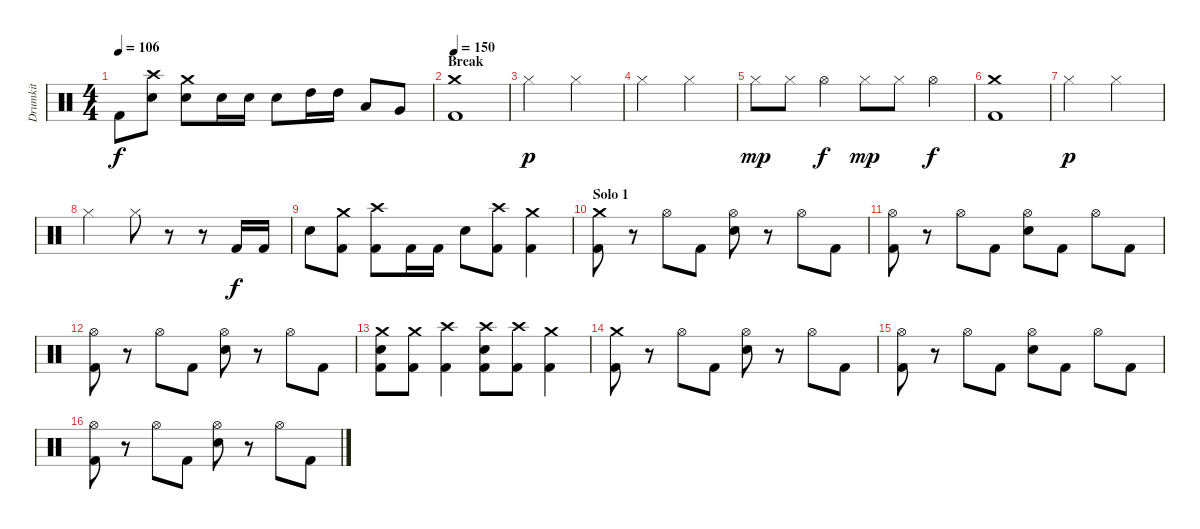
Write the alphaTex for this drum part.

\track ("Drumkit" "Drumkit") {instrument percussion}
\staff {score}
\articulation defaults
\ts (4 4)
\tempo 106
\clef neutral
\ks c "Kick (hit) 2".8{dy f}
("Crash high (hit)" "Snare (hit) 2").8 ("Crash medium (hit)" "Snare (hit) 2").8 "Snare (hit) 2".16 "Snare (hit) 2".16 "Snare (hit) 2".8 "High Tom (hit)".16 "High Tom (hit)".16 "Low Tom (hit)".8 "Very Low Tom (hit)".8 |
\section ("" "Break")
\tempo 150
("Crash medium (hit)" "Kick (hit) 2").1 |
"Hi-Hat (closed)".2{dy p} "Hi-Hat (closed)".2 |
"Hi-Hat (closed)".2 "Hi-Hat (closed)".2 |
"Hi-Hat (closed)".8{dy mp} "Hi-Hat (closed)".8 "Hi-Hat (open)".4{dy f} "Hi-Hat (closed)".8{dy mp} "Hi-Hat (closed)".8 "Hi-Hat (open)".4{dy f} |
("Crash medium (hit)" "Kick (hit) 2").1 |
"Hi-Hat (closed)".2{dy p} "Hi-Hat (closed)".2 |
"Hi-Hat (closed)".2 "Hi-Hat (closed)".8 r.8 r.8 "Kick (hit) 2".16{dy f} "Kick (hit) 2".16 |
"Snare (hit) 2".8 ("Crash medium (hit)" "Kick (hit) 2").8 ("Crash high (hit)" "Kick (hit) 2").8 "Kick (hit) 2".16 "Kick (hit) 2".16 "Snare (hit) 2".8 ("Crash high (hit)" "Kick (hit) 2").8 ("Crash medium (hit)" "Kick (hit) 2").4 |
\section ("" "Solo 1")
("Crash medium (hit)" "Kick (hit) 2").8 r.8 "Hi-Hat (open)".8 "Kick (hit) 2".8 ("Hi-Hat (open)" "Snare (hit) 2").8 r.8 "Hi-Hat (open)".8 "Kick (hit) 2".8 |
("Hi-Hat (open)" "Kick (hit) 2").8 r.8 "Hi-Hat (open)".8 "Kick (hit) 2".8 ("Hi-Hat (open)" "Snare (hit) 2").8 "Kick (hit) 2".8 "Hi-Hat (open)".8 "Kick (hit) 2".8 |
("Hi-Hat (open)" "Kick (hit) 2").8 r.8 "Hi-Hat (open)".8 "Kick (hit) 2".8 ("Hi-Hat (open)" "Snare (hit) 2").8 r.8 "Hi-Hat (open)".8 "Kick (hit) 2".8 |
("Crash medium (hit)" "Snare (hit) 2" "Kick (hit) 2").8 ("Crash medium (hit)" "Kick (hit) 2").8 ("Crash high (hit)" "Kick (hit) 2").4 ("Crash high (hit)" "Snare (hit) 2" "Kick (hit) 2").8 ("Crash high (hit)" "Kick (hit) 2").8 ("Crash medium (hit)" "Kick (hit) 2").4 |
("Crash medium (hit)" "Kick (hit) 2").8 r.8 "Hi-Hat (open)".8 "Kick (hit) 2".8 ("Hi-Hat (open)" "Snare (hit) 2").8 r.8 "Hi-Hat (open)".8 "Kick (hit) 2".8 |
("Hi-Hat (open)" "Kick (hit) 2").8 r.8 "Hi-Hat (open)".8 "Kick (hit) 2".8 ("Hi-Hat (open)" "Snare (hit) 2").8 "Kick (hit) 2".8 "Hi-Hat (open)".8 "Kick (hit) 2".8 |
("Hi-Hat (open)" "Kick (hit) 2").8 r.8 "Hi-Hat (open)".8 "Kick (hit) 2".8 ("Hi-Hat (open)" "Snare (hit) 2").8 r.8 "Hi-Hat (open)".8 "Kick (hit) 2".8
